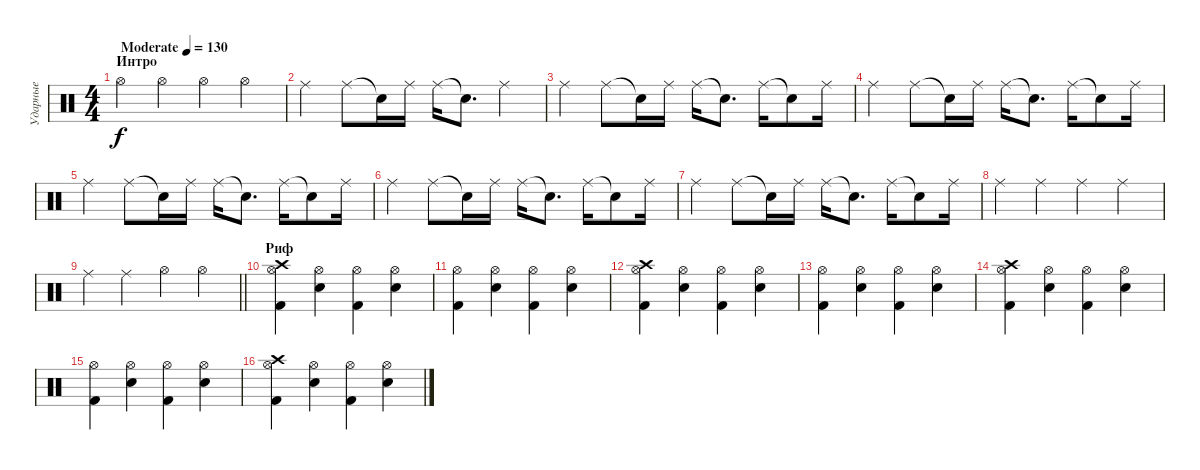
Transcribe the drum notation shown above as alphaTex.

\track ("Ударные" "Ударные") {instrument percussion}
\staff {score}
\articulation defaults
\ts (4 4)
\section ("" "Интро")
\tempo (130 "Moderate")
\clef neutral
\ks c "Hi-Hat (open)".4{dy f} "Hi-Hat (open)".4 "Hi-Hat (open)".4 "Hi-Hat (open)".4
|
"Ride (middle)".4 "Ride (middle)".8 "Snare (hit)"{t}.16 "Ride (middle)".16 "Ride (middle)".16 "Snare (hit)"{t}.8{d} "Ride (middle)".4 |
"Ride (middle)".4 "Ride (middle)".8 "Snare (hit)"{t}.16 "Ride (middle)".16 "Ride (middle)".16 "Snare (hit)"{t}.8{d} "Ride (middle)".16 "Snare (hit)"{t}.8 "Ride (middle)".16 |
"Ride (middle)".4 "Ride (middle)".8 "Snare (hit)"{t}.16 "Ride (middle)".16 "Ride (middle)".16 "Snare (hit)"{t}.8{d} "Ride (middle)".16 "Snare (hit)"{t}.8 "Ride (middle)".16 |
"Ride (middle)".4 "Ride (middle)".8 "Snare (hit)"{t}.16 "Ride (middle)".16 "Ride (middle)".16 "Snare (hit)"{t}.8{d} "Ride (middle)".16 "Snare (hit)"{t}.8 "Ride (middle)".16 |
"Ride (middle)".4 "Ride (middle)".8 "Snare (hit)"{t}.16 "Ride (middle)".16 "Ride (middle)".16 "Snare (hit)"{t}.8{d} "Ride (middle)".16 "Snare (hit)"{t}.8 "Ride (middle)".16 |
"Ride (middle)".4 "Ride (middle)".8 "Snare (hit)"{t}.16 "Ride (middle)".16 "Ride (middle)".16 "Snare (hit)"{t}.8{d} "Ride (middle)".16 "Snare (hit)"{t}.8 "Ride (middle)".16 |
"Ride (middle)".4 "Ride (middle)".4 "Ride (middle)".4 "Ride (middle)".4 |
\barLineRight lightlight "Ride (middle)".4 "Ride (middle)".4 "Hi-Hat (open)".4 "Hi-Hat (open)".4
|
\section ("" "Риф")
("Hi-Hat (open)" "Kick (hit) 2" "Crash high (hit)").4 ("Hi-Hat (open)" "Snare (hit) 2").4 ("Hi-Hat (open)" "Kick (hit) 2").4 ("Hi-Hat (open)" "Snare (hit) 2").4 |
("Hi-Hat (open)" "Kick (hit) 2").4 ("Hi-Hat (open)" "Snare (hit) 2").4 ("Hi-Hat (open)" "Kick (hit) 2").4 ("Hi-Hat (open)" "Snare (hit) 2").4 |
("Hi-Hat (open)" "Kick (hit) 2" "Crash high (hit)").4 ("Hi-Hat (open)" "Snare (hit) 2").4 ("Hi-Hat (open)" "Kick (hit) 2").4 ("Hi-Hat (open)" "Snare (hit) 2").4 |
("Hi-Hat (open)" "Kick (hit) 2").4 ("Hi-Hat (open)" "Snare (hit) 2").4 ("Hi-Hat (open)" "Kick (hit) 2").4 ("Hi-Hat (open)" "Snare (hit) 2").4 |
("Hi-Hat (open)" "Kick (hit) 2" "Crash high (hit)").4 ("Hi-Hat (open)" "Snare (hit) 2").4 ("Hi-Hat (open)" "Kick (hit) 2").4 ("Hi-Hat (open)" "Snare (hit) 2").4 |
("Hi-Hat (open)" "Kick (hit) 2").4 ("Hi-Hat (open)" "Snare (hit) 2").4 ("Hi-Hat (open)" "Kick (hit) 2").4 ("Hi-Hat (open)" "Snare (hit) 2").4 |
("Hi-Hat (open)" "Kick (hit) 2" "Crash high (hit)").4 ("Hi-Hat (open)" "Snare (hit) 2").4 ("Hi-Hat (open)" "Kick (hit) 2").4 ("Hi-Hat (open)" "Snare (hit) 2").4
